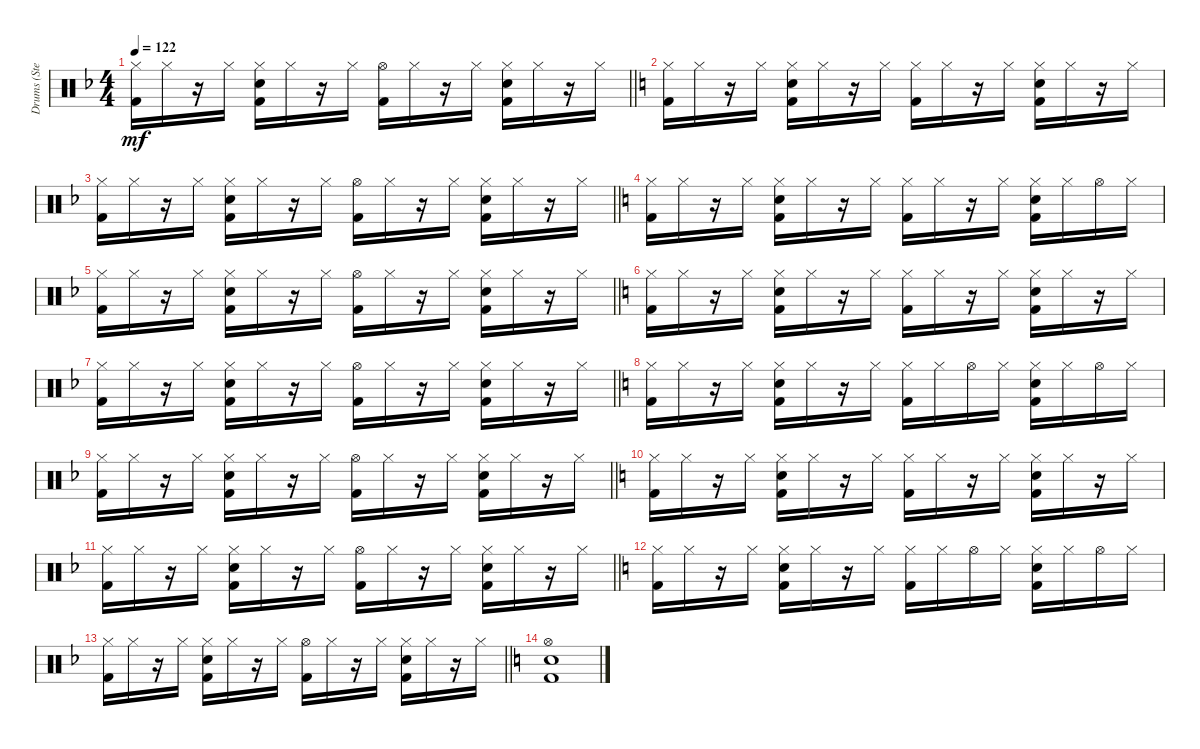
\track ("Drums (Stephen Morris)" "Drums (Ste") {instrument percussion}
\staff {score}
\articulation defaults
\ts (4 4)
\tempo 122
\clef neutral
\barLineRight lightlight
\ks f
("Kick (hit) 2" "Hi-Hat (closed)").16{dy mf} "Hi-Hat (closed)".16 r.16 "Hi-Hat (closed)".16 ("Hi-Hat (closed)" "Snare (hit) 2" "Kick (hit) 2").16 "Hi-Hat (closed)".16 r.16 "Hi-Hat (closed)".16 ("Hi-Hat (open)" "Kick (hit) 2").16 "Hi-Hat (closed)".16 r.16 "Hi-Hat (closed)".16 ("Kick (hit) 2" "Snare (hit) 2" "Hi-Hat (closed)").16 "Hi-Hat (closed)".16 r.16 "Hi-Hat (closed)".16 |
\ks c
("Kick (hit) 2" "Hi-Hat (closed)").16 "Hi-Hat (closed)".16 r.16 "Hi-Hat (closed)".16 ("Hi-Hat (closed)" "Snare (hit) 2" "Kick (hit) 2").16 "Hi-Hat (closed)".16 r.16 "Hi-Hat (closed)".16 ("Kick (hit) 2" "Hi-Hat (closed)").16 "Hi-Hat (closed)".16 r.16 "Hi-Hat (closed)".16 ("Kick (hit) 2" "Snare (hit) 2" "Hi-Hat (closed)").16 "Hi-Hat (closed)".16 r.16 "Hi-Hat (closed)".16 |
\barLineRight lightlight
\ks f
("Kick (hit) 2" "Hi-Hat (closed)").16 "Hi-Hat (closed)".16 r.16 "Hi-Hat (closed)".16 ("Hi-Hat (closed)" "Snare (hit) 2" "Kick (hit) 2").16 "Hi-Hat (closed)".16 r.16 "Hi-Hat (closed)".16 ("Kick (hit) 2" "Hi-Hat (open)").16 "Hi-Hat (closed)".16 r.16 "Hi-Hat (closed)".16 ("Hi-Hat (closed)" "Snare (hit) 2" "Kick (hit) 2").16 "Hi-Hat (closed)".16 r.16 "Hi-Hat (closed)".16 |
\ks c
("Kick (hit) 2" "Hi-Hat (closed)").16 "Hi-Hat (closed)".16 r.16 "Hi-Hat (closed)".16 ("Kick (hit) 2" "Snare (hit) 2" "Hi-Hat (closed)").16 "Hi-Hat (closed)".16 r.16 "Hi-Hat (closed)".16 ("Hi-Hat (closed)" "Kick (hit) 2").16 "Hi-Hat (closed)".16 r.16 "Hi-Hat (closed)".16 ("Hi-Hat (closed)" "Snare (hit) 2" "Kick (hit) 2").16 "Hi-Hat (closed)".16 "Hi-Hat (open)".16 "Hi-Hat (closed)".16 |
\barLineRight lightlight
\ks f
("Kick (hit) 2" "Hi-Hat (closed)").16 "Hi-Hat (closed)".16 r.16 "Hi-Hat (closed)".16 ("Hi-Hat (closed)" "Snare (hit) 2" "Kick (hit) 2").16 "Hi-Hat (closed)".16 r.16 "Hi-Hat (closed)".16 ("Kick (hit) 2" "Hi-Hat (open)").16 "Hi-Hat (closed)".16 r.16 "Hi-Hat (closed)".16 ("Hi-Hat (closed)" "Snare (hit) 2" "Kick (hit) 2").16 "Hi-Hat (closed)".16 r.16 "Hi-Hat (closed)".16 |
\ks c
("Kick (hit) 2" "Hi-Hat (closed)").16 "Hi-Hat (closed)".16 r.16 "Hi-Hat (closed)".16 ("Kick (hit) 2" "Snare (hit) 2" "Hi-Hat (closed)").16 "Hi-Hat (closed)".16 r.16 "Hi-Hat (closed)".16 ("Hi-Hat (closed)" "Kick (hit) 2").16 "Hi-Hat (closed)".16 r.16 "Hi-Hat (closed)".16 ("Hi-Hat (closed)" "Snare (hit) 2" "Kick (hit) 2").16 "Hi-Hat (closed)".16 r.16 "Hi-Hat (closed)".16 |
\barLineRight lightlight
\ks f
("Kick (hit) 2" "Hi-Hat (closed)").16 "Hi-Hat (closed)".16 r.16 "Hi-Hat (closed)".16 ("Hi-Hat (closed)" "Snare (hit) 2" "Kick (hit) 2").16 "Hi-Hat (closed)".16 r.16 "Hi-Hat (closed)".16 ("Kick (hit) 2" "Hi-Hat (open)").16 "Hi-Hat (closed)".16 r.16 "Hi-Hat (closed)".16 ("Hi-Hat (closed)" "Snare (hit) 2" "Kick (hit) 2").16 "Hi-Hat (closed)".16 r.16 "Hi-Hat (closed)".16 |
\ks c
("Kick (hit) 2" "Hi-Hat (closed)").16 "Hi-Hat (closed)".16 r.16 "Hi-Hat (closed)".16 ("Kick (hit) 2" "Snare (hit) 2" "Hi-Hat (closed)").16 "Hi-Hat (closed)".16 r.16 "Hi-Hat (closed)".16 ("Kick (hit) 2" "Hi-Hat (closed)").16 "Hi-Hat (closed)".16 "Hi-Hat (open)".16 "Hi-Hat (closed)".16 ("Hi-Hat (closed)" "Snare (hit) 2" "Kick (hit) 2").16 "Hi-Hat (closed)".16 "Hi-Hat (open)".16 "Hi-Hat (closed)".16 |
\barLineRight lightlight
\ks f
("Hi-Hat (closed)" "Kick (hit) 2").16 "Hi-Hat (closed)".16 r.16 "Hi-Hat (closed)".16 ("Hi-Hat (closed)" "Kick (hit) 2" "Snare (hit) 2").16 "Hi-Hat (closed)".16 r.16 "Hi-Hat (closed)".16 ("Kick (hit) 2" "Hi-Hat (open)").16 "Hi-Hat (closed)".16 r.16 "Hi-Hat (closed)".16 ("Snare (hit) 2" "Kick (hit) 2" "Hi-Hat (closed)").16 "Hi-Hat (closed)".16 r.16 "Hi-Hat (closed)".16 |
\ks c
("Kick (hit) 2" "Hi-Hat (closed)").16 "Hi-Hat (closed)".16 r.16 "Hi-Hat (closed)".16 ("Snare (hit) 2" "Kick (hit) 2" "Hi-Hat (closed)").16 "Hi-Hat (closed)".16 r.16 "Hi-Hat (closed)".16 ("Hi-Hat (closed)" "Kick (hit) 2").16 "Hi-Hat (closed)".16 r.16 "Hi-Hat (closed)".16 ("Snare (hit) 2" "Kick (hit) 2" "Hi-Hat (closed)").16 "Hi-Hat (closed)".16 r.16 "Hi-Hat (closed)".16 |
\barLineRight lightlight
\ks f
("Hi-Hat (closed)" "Kick (hit) 2").16 "Hi-Hat (closed)".16 r.16 "Hi-Hat (closed)".16 ("Hi-Hat (closed)" "Kick (hit) 2" "Snare (hit) 2").16 "Hi-Hat (closed)".16 r.16 "Hi-Hat (closed)".16 ("Hi-Hat (open)" "Kick (hit) 2").16 "Hi-Hat (closed)".16 r.16 "Hi-Hat (closed)".16 ("Snare (hit) 2" "Kick (hit) 2" "Hi-Hat (closed)").16 "Hi-Hat (closed)".16 r.16 "Hi-Hat (closed)".16 |
\ks c
("Hi-Hat (closed)" "Kick (hit) 2").16 "Hi-Hat (closed)".16 r.16 "Hi-Hat (closed)".16 ("Hi-Hat (closed)" "Kick (hit) 2" "Snare (hit) 2").16 "Hi-Hat (closed)".16 r.16 "Hi-Hat (closed)".16 ("Kick (hit) 2" "Hi-Hat (closed)").16 "Hi-Hat (closed)".16 "Hi-Hat (open)".16 "Hi-Hat (closed)".16 ("Snare (hit) 2" "Kick (hit) 2" "Hi-Hat (closed)").16 "Hi-Hat (closed)".16 "Hi-Hat (open)".16 "Hi-Hat (closed)".16 |
\barLineRight lightlight
\ks f
("Kick (hit) 2" "Hi-Hat (closed)").16 "Hi-Hat (closed)".16 r.16 "Hi-Hat (closed)".16 ("Hi-Hat (closed)" "Kick (hit) 2" "Snare (hit) 2").16 "Hi-Hat (closed)".16 r.16 "Hi-Hat (closed)".16 ("Kick (hit) 2" "Hi-Hat (open)").16 "Hi-Hat (closed)".16 r.16 "Hi-Hat (closed)".16 ("Snare (hit) 2" "Kick (hit) 2" "Hi-Hat (closed)").16 "Hi-Hat (closed)".16 r.16 "Hi-Hat (closed)".16 |
\ks c
("Snare (hit) 2" "Kick (hit) 2" "Hi-Hat (open)").1
